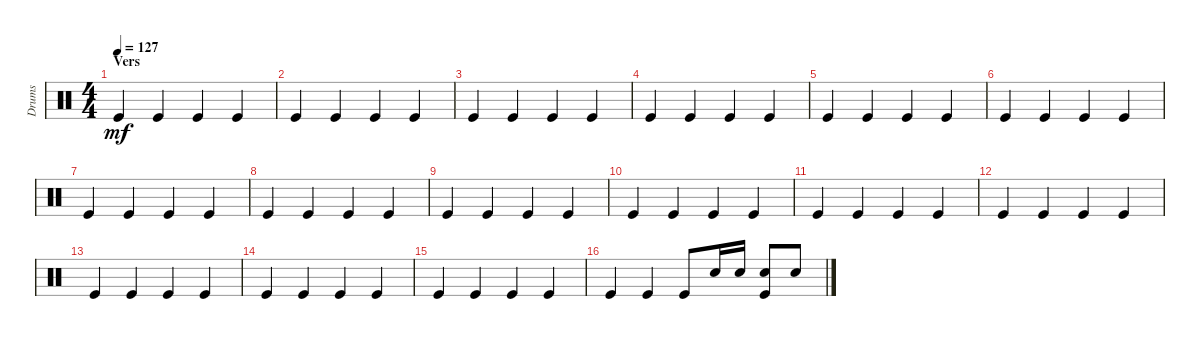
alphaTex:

\track ("Drums" "Drums") {instrument percussion}
\staff {score}
\articulation defaults
\ts (4 4)
\section ("" "Vers")
\tempo 127
\clef neutral
\ks c "Kick (hit)".4{dy mf} "Kick (hit)".4 "Kick (hit)".4 "Kick (hit)".4
|
"Kick (hit)".4 "Kick (hit)".4 "Kick (hit)".4 "Kick (hit)".4 |
"Kick (hit)".4 "Kick (hit)".4 "Kick (hit)".4 "Kick (hit)".4 |
"Kick (hit)".4 "Kick (hit)".4 "Kick (hit)".4 "Kick (hit)".4 |
"Kick (hit)".4 "Kick (hit)".4 "Kick (hit)".4 "Kick (hit)".4 |
"Kick (hit)".4 "Kick (hit)".4 "Kick (hit)".4 "Kick (hit)".4 |
"Kick (hit)".4 "Kick (hit)".4 "Kick (hit)".4 "Kick (hit)".4 |
"Kick (hit)".4 "Kick (hit)".4 "Kick (hit)".4 "Kick (hit)".4 |
"Kick (hit)".4 "Kick (hit)".4 "Kick (hit)".4 "Kick (hit)".4 |
"Kick (hit)".4 "Kick (hit)".4 "Kick (hit)".4 "Kick (hit)".4 |
"Kick (hit)".4 "Kick (hit)".4 "Kick (hit)".4 "Kick (hit)".4 |
"Kick (hit)".4 "Kick (hit)".4 "Kick (hit)".4 "Kick (hit)".4 |
"Kick (hit)".4 "Kick (hit)".4 "Kick (hit)".4 "Kick (hit)".4 |
"Kick (hit)".4 "Kick (hit)".4 "Kick (hit)".4 "Kick (hit)".4 |
"Kick (hit)".4 "Kick (hit)".4 "Kick (hit)".4 "Kick (hit)".4 |
"Kick (hit)".4 "Kick (hit)".4 "Kick (hit)".8 "Snare (hit) 2".16 "Snare (hit) 2".16 ("Kick (hit)" "Snare (hit) 2").8 "Snare (hit) 2".8
